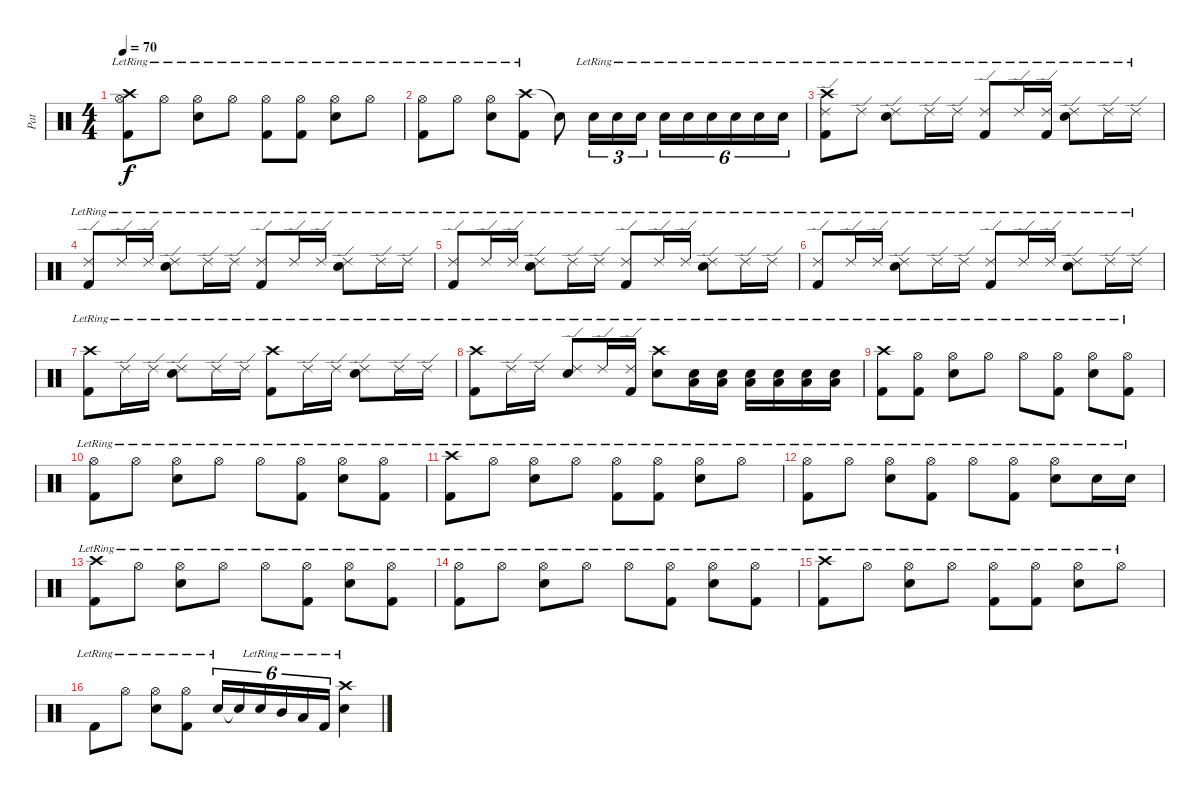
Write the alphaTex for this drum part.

\track ("Pat" "Pat") {instrument percussion}
\staff {score}
\articulation defaults
\ts (4 4)
\tempo 70
\clef neutral
\ks c
("Crash high (hit)"{lr} "Hi-Hat (open)"{lr} "Kick (hit) 2"{lr}).8{dy f} "Hi-Hat (open)"{lr}.8 ("Hi-Hat (open)"{lr} "Electric Snare (hit)"{lr}).8 "Hi-Hat (open)"{lr}.8 ("Hi-Hat (open)"{lr} "Kick (hit) 2"{lr}).8 ("Hi-Hat (open)"{lr} "Kick (hit) 2"{lr}).8 ("Hi-Hat (open)"{lr} "Electric Snare (hit)"{lr}).8 "Hi-Hat (open)"{lr}.8 |
("Hi-Hat (open)"{lr} "Kick (hit) 2"{lr}).8 "Hi-Hat (open)"{lr}.8 ("Hi-Hat (open)"{lr} "Electric Snare (hit)"{lr}).8 ("Crash high (hit)"{lr} "Kick (hit) 2"{lr}).8 "Snare (hit)"{t}.8 "Electric Snare (hit)"{lr}.16{tu (3 2)} "Electric Snare (hit)"{lr}.16{tu (3 2)} "Electric Snare (hit)"{lr}.16{tu (3 2)} "Electric Snare (hit)"{lr}.16{tu (6 4)} "Electric Snare (hit)"{lr}.16{tu (6 4)} "Electric Snare (hit)"{lr}.16{tu (6 4)} "Electric Snare (hit)"{lr}.16{tu (6 4)} "Electric Snare (hit)"{lr}.16{tu (6 4)} "Electric Snare (hit)"{lr}.16{tu (6 4)} |
("Crash high (hit)"{lr} "Ride (edge) 2"{lr} "Kick (hit) 2"{lr}).8 "Ride (edge) 2"{lr}.8 ("Ride (edge) 2"{lr} "Electric Snare (hit)"{lr}).8 "Ride (edge) 2"{lr}.16 "Ride (edge) 2"{lr}.16 ("Ride (edge) 2"{lr} "Kick (hit) 2"{lr}).8 "Ride (edge) 2"{lr}.16 ("Ride (edge) 2"{lr} "Kick (hit) 2"{lr}).16 ("Ride (edge) 2"{lr} "Electric Snare (hit)"{lr}).8 "Ride (edge) 2"{lr}.16 "Ride (edge) 2"{lr}.16 |
("Ride (edge) 2"{lr} "Kick (hit) 2"{lr}).8 "Ride (edge) 2"{lr}.16 "Ride (edge) 2"{lr}.16 ("Ride (edge) 2"{lr} "Electric Snare (hit)"{lr}).8 "Ride (edge) 2"{lr}.16 "Ride (edge) 2"{lr}.16 ("Ride (edge) 2"{lr} "Kick (hit) 2"{lr}).8 "Ride (edge) 2"{lr}.16 "Ride (edge) 2"{lr}.16 ("Ride (edge) 2"{lr} "Electric Snare (hit)"{lr}).8 "Ride (edge) 2"{lr}.16 "Ride (edge) 2"{lr}.16 |
("Ride (edge) 2"{lr} "Kick (hit) 2"{lr}).8 "Ride (edge) 2"{lr}.16 "Ride (edge) 2"{lr}.16 ("Ride (edge) 2"{lr} "Electric Snare (hit)"{lr}).8 "Ride (edge) 2"{lr}.16 "Ride (edge) 2"{lr}.16 ("Ride (edge) 2"{lr} "Kick (hit) 2"{lr}).8 "Ride (edge) 2"{lr}.16 "Ride (edge) 2"{lr}.16 ("Ride (edge) 2"{lr} "Electric Snare (hit)"{lr}).8 "Ride (edge) 2"{lr}.16 "Ride (edge) 2"{lr}.16 |
("Ride (edge) 2"{lr} "Kick (hit) 2"{lr}).8 "Ride (edge) 2"{lr}.16 "Ride (edge) 2"{lr}.16 ("Ride (edge) 2"{lr} "Electric Snare (hit)"{lr}).8 "Ride (edge) 2"{lr}.16 "Ride (edge) 2"{lr}.16 ("Ride (edge) 2"{lr} "Kick (hit) 2"{lr}).8 "Ride (edge) 2"{lr}.16 "Ride (edge) 2"{lr}.16 ("Ride (edge) 2"{lr} "Electric Snare (hit)"{lr}).8 "Ride (edge) 2"{lr}.16 "Ride (edge) 2"{lr}.16 |
("Crash high (hit)"{lr} "Kick (hit) 2"{lr}).8 "Ride (edge) 2"{lr}.16 "Ride (edge) 2"{lr}.16 ("Ride (edge) 2"{lr} "Electric Snare (hit)"{lr}).8 "Ride (edge) 2"{lr}.16 "Ride (edge) 2"{lr}.16 ("Crash high (hit)"{lr} "Kick (hit) 2"{lr}).8 "Ride (edge) 2"{lr}.16 "Ride (edge) 2"{lr}.16 ("Ride (edge) 2"{lr} "Electric Snare (hit)"{lr}).8 "Ride (edge) 2"{lr}.16 "Ride (edge) 2"{lr}.16 |
("Crash high (hit)"{lr} "Kick (hit) 2"{lr}).8 "Ride (edge) 2"{lr}.16 "Ride (edge) 2"{lr}.16 ("Ride (edge) 2"{lr} "Electric Snare (hit)"{lr}).8 "Ride (edge) 2"{lr}.16 ("Ride (edge) 2"{lr} "Kick (hit) 2"{lr}).16 ("Crash high (hit)"{lr} "Electric Snare (hit)"{lr}).8 ("Electric Snare (hit)"{lr} "Low Floor Tom (hit)"{lr}).16 ("Electric Snare (hit)"{lr} "Low Floor Tom (hit)"{lr}).16 ("Electric Snare (hit)"{lr} "Low Floor Tom (hit)"{lr}).16 ("Electric Snare (hit)"{lr} "Low Floor Tom (hit)"{lr}).16 ("Electric Snare (hit)"{lr} "Low Floor Tom (hit)"{lr}).16 ("Electric Snare (hit)"{lr} "Low Floor Tom (hit)"{lr}).16 |
("Crash high (hit)"{lr} "Kick (hit) 2"{lr}).8 ("Hi-Hat (open)"{lr} "Kick (hit) 2"{lr}).8 ("Hi-Hat (open)"{lr} "Electric Snare (hit)"{lr}).8 "Hi-Hat (open)"{lr}.8 "Hi-Hat (open)"{lr}.8 ("Hi-Hat (open)"{lr} "Kick (hit) 2"{lr}).8 ("Hi-Hat (open)"{lr} "Electric Snare (hit)"{lr}).8 ("Hi-Hat (open)"{lr} "Kick (hit) 2"{lr}).8 |
("Hi-Hat (open)"{lr} "Kick (hit) 2"{lr}).8 "Hi-Hat (open)"{lr}.8 ("Hi-Hat (open)"{lr} "Electric Snare (hit)"{lr}).8 "Hi-Hat (open)"{lr}.8 "Hi-Hat (open)"{lr}.8 ("Hi-Hat (open)"{lr} "Kick (hit) 2"{lr}).8 ("Hi-Hat (open)"{lr} "Electric Snare (hit)"{lr}).8 ("Hi-Hat (open)"{lr} "Kick (hit) 2"{lr}).8 |
("Crash high (hit)"{lr} "Kick (hit) 2"{lr}).8 "Hi-Hat (open)"{lr}.8 ("Hi-Hat (open)"{lr} "Electric Snare (hit)"{lr}).8 "Hi-Hat (open)"{lr}.8 ("Hi-Hat (open)"{lr} "Kick (hit) 2"{lr}).8 ("Hi-Hat (open)"{lr} "Kick (hit) 2"{lr}).8 ("Hi-Hat (open)"{lr} "Electric Snare (hit)"{lr}).8 "Hi-Hat (open)"{lr}.8 |
("Hi-Hat (open)"{lr} "Kick (hit) 2"{lr}).8 "Hi-Hat (open)"{lr}.8 ("Hi-Hat (open)"{lr} "Electric Snare (hit)"{lr}).8 ("Hi-Hat (open)"{lr} "Kick (hit) 2"{lr}).8 "Hi-Hat (open)"{lr}.8 ("Hi-Hat (open)"{lr} "Kick (hit) 2"{lr}).8 ("Hi-Hat (open)"{lr} "Electric Snare (hit)"{lr}).8 "Electric Snare (hit)"{lr}.16 "Electric Snare (hit)"{lr}.16 |
("Crash high (hit)"{lr} "Kick (hit) 2"{lr}).8 "Hi-Hat (open)"{lr}.8 ("Hi-Hat (open)"{lr} "Electric Snare (hit)"{lr}).8 "Hi-Hat (open)"{lr}.8 "Hi-Hat (open)"{lr}.8 ("Hi-Hat (open)"{lr} "Kick (hit) 2"{lr}).8 ("Hi-Hat (open)"{lr} "Electric Snare (hit)"{lr}).8 ("Hi-Hat (open)"{lr} "Kick (hit) 2"{lr}).8 |
("Hi-Hat (open)"{lr} "Kick (hit) 2"{lr}).8 "Hi-Hat (open)"{lr}.8 ("Hi-Hat (open)"{lr} "Electric Snare (hit)"{lr}).8 "Hi-Hat (open)"{lr}.8 "Hi-Hat (open)"{lr}.8 ("Hi-Hat (open)"{lr} "Kick (hit) 2"{lr}).8 ("Hi-Hat (open)"{lr} "Electric Snare (hit)"{lr}).8 ("Hi-Hat (open)"{lr} "Kick (hit) 2"{lr}).8 |
("Crash high (hit)"{lr} "Kick (hit) 2"{lr}).8 "Hi-Hat (open)"{lr}.8 ("Hi-Hat (open)"{lr} "Electric Snare (hit)"{lr}).8 "Hi-Hat (open)"{lr}.8 ("Hi-Hat (open)"{lr} "Kick (hit) 2"{lr}).8 ("Hi-Hat (open)"{lr} "Kick (hit) 2"{lr}).8 ("Hi-Hat (open)"{lr} "Electric Snare (hit)"{lr}).8 "Hi-Hat (open)"{lr}.8 |
"Kick (hit) 2"{lr}.8 "Hi-Hat (open)"{lr}.8 ("Hi-Hat (open)"{lr} "Electric Snare (hit)"{lr}).8 ("Hi-Hat (open)"{lr} "Kick (hit) 2"{lr}).8 "Electric Snare (hit)"{lr}.16{tu (6 4)} "Electric Snare (hit)"{t}.16{tu (6 4)} "Electric Snare (hit)"{lr}.16{tu (6 4)} "Mid Tom (hit)"{lr}.16{tu (6 4)} "Low Tom (hit)"{lr}.16{tu (6 4)} "Kick (hit) 2"{lr}.16{tu (6 4)} ("Crash high (hit)"{lr} "Electric Snare (hit)"{lr}).4
